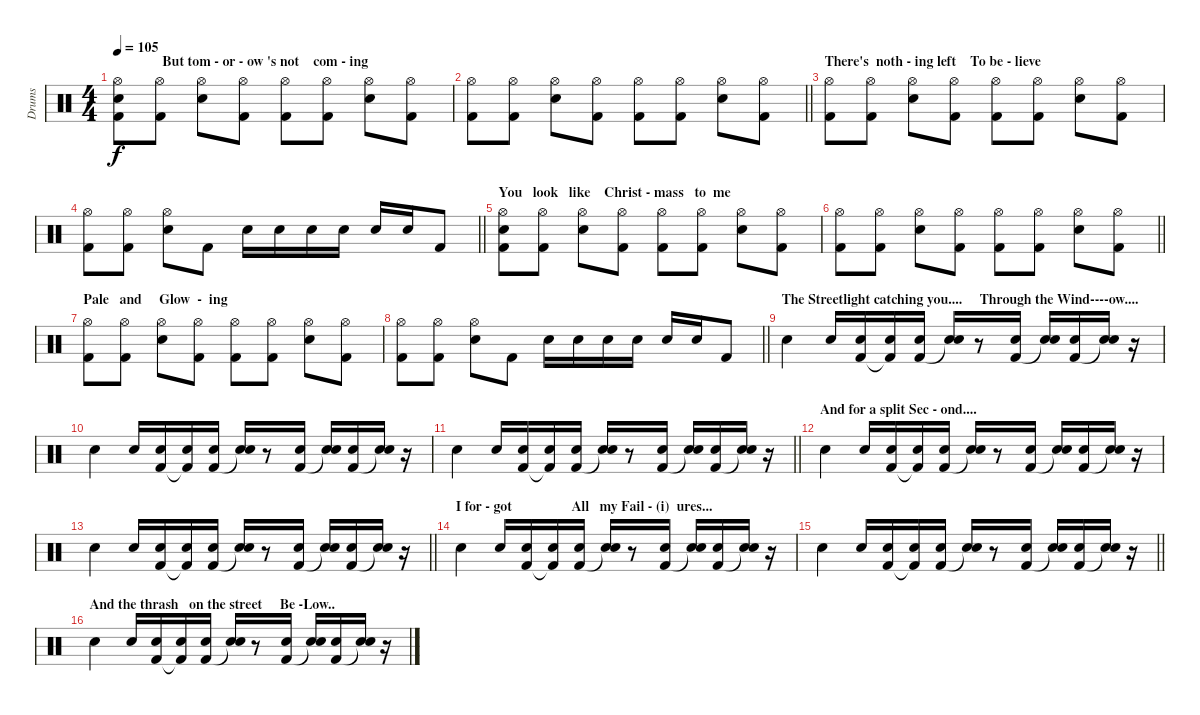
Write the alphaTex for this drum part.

\track ("Drums " "Drums ") {instrument percussion}
\staff {score}
\articulation defaults
\ts (4 4)
\section ("" "              But tom - or - ow 's not    com - ing")
\tempo 105
\clef neutral
\ks c
("Hi-Hat (open)" "Kick (hit) 2" "Snare (hit) 2").8{dy f} ("Hi-Hat (open)" "Kick (hit) 2").8 ("Hi-Hat (open)" "Snare (hit) 2").8 ("Hi-Hat (open)" "Kick (hit) 2").8 ("Hi-Hat (open)" "Kick (hit) 2").8 ("Hi-Hat (open)" "Kick (hit) 2").8 ("Hi-Hat (open)" "Snare (hit) 2").8 ("Hi-Hat (open)" "Kick (hit) 2").8 |
\barLineRight lightlight
("Hi-Hat (open)" "Kick (hit) 2").8 ("Hi-Hat (open)" "Kick (hit) 2").8 ("Hi-Hat (open)" "Snare (hit) 2").8 ("Hi-Hat (open)" "Kick (hit) 2").8 ("Hi-Hat (open)" "Kick (hit) 2").8 ("Hi-Hat (open)" "Kick (hit) 2").8 ("Hi-Hat (open)" "Snare (hit) 2").8 ("Hi-Hat (open)" "Kick (hit) 2").8 |
\section ("" "There's  noth - ing left    To be - lieve")
("Hi-Hat (open)" "Kick (hit) 2").8 ("Hi-Hat (open)" "Kick (hit) 2").8 ("Hi-Hat (open)" "Snare (hit) 2").8 ("Hi-Hat (open)" "Kick (hit) 2").8 ("Hi-Hat (open)" "Kick (hit) 2").8 ("Hi-Hat (open)" "Kick (hit) 2").8 ("Hi-Hat (open)" "Snare (hit) 2").8 ("Hi-Hat (open)" "Kick (hit) 2").8 |
\barLineRight lightlight
("Hi-Hat (open)" "Kick (hit) 2").8 ("Hi-Hat (open)" "Kick (hit) 2").8 ("Hi-Hat (open)" "Snare (hit) 2").8 "Kick (hit) 2".8 "Snare (hit) 2".16 "Snare (hit) 2".16 "Snare (hit) 2".16 "Snare (hit) 2".16 "Snare (hit) 2".16 "Snare (hit) 2".16 "Kick (hit) 2".8 |
\section ("" "You   look   like    Christ - mass   to  me")
("Hi-Hat (open)" "Kick (hit) 2" "Snare (hit) 2").8 ("Hi-Hat (open)" "Kick (hit) 2").8 ("Hi-Hat (open)" "Snare (hit) 2").8 ("Hi-Hat (open)" "Kick (hit) 2").8 ("Hi-Hat (open)" "Kick (hit) 2").8 ("Hi-Hat (open)" "Kick (hit) 2").8 ("Hi-Hat (open)" "Snare (hit) 2").8 ("Hi-Hat (open)" "Kick (hit) 2").8 |
\barLineRight lightlight
("Hi-Hat (open)" "Kick (hit) 2").8 ("Hi-Hat (open)" "Kick (hit) 2").8 ("Hi-Hat (open)" "Snare (hit) 2").8 ("Hi-Hat (open)" "Kick (hit) 2").8 ("Hi-Hat (open)" "Kick (hit) 2").8 ("Hi-Hat (open)" "Kick (hit) 2").8 ("Hi-Hat (open)" "Snare (hit) 2").8 ("Hi-Hat (open)" "Kick (hit) 2").8 |
\section ("" "Pale   and     Glow  -  ing")
("Hi-Hat (open)" "Kick (hit) 2").8 ("Hi-Hat (open)" "Kick (hit) 2").8 ("Hi-Hat (open)" "Snare (hit) 2").8 ("Hi-Hat (open)" "Kick (hit) 2").8 ("Hi-Hat (open)" "Kick (hit) 2").8 ("Hi-Hat (open)" "Kick (hit) 2").8 ("Hi-Hat (open)" "Snare (hit) 2").8 ("Hi-Hat (open)" "Kick (hit) 2").8 |
\barLineRight lightlight
("Hi-Hat (open)" "Kick (hit) 2").8 ("Hi-Hat (open)" "Kick (hit) 2").8 ("Hi-Hat (open)" "Snare (hit) 2").8 "Kick (hit) 2".8 "Snare (hit) 2".16 "Snare (hit) 2".16 "Snare (hit) 2".16 "Snare (hit) 2".16 "Snare (hit) 2".16 "Snare (hit) 2".16 "Kick (hit) 2".8 |
\section ("" "The Streetlight catching you....     Through the Wind----ow....")
"Snare (hit) 2".4 "Snare (hit) 2".16 ("Kick (hit) 2" "Snare (hit) 2").16 ("Kick (hit) 2"{t} "Snare (hit) 2").16 ("Kick (hit) 2" "Snare (hit) 2").16 ("Snare (hit)"{t} "Snare (hit) 2").16 r.8 ("Kick (hit) 2" "Snare (hit) 2").16 ("Snare (hit)"{t} "Snare (hit) 2").16 ("Kick (hit) 2" "Snare (hit) 2").16 ("Snare (hit)"{t} "Snare (hit) 2").16 r.16 |
"Snare (hit) 2".4 "Snare (hit) 2".16 ("Kick (hit) 2" "Snare (hit) 2").16 ("Kick (hit) 2"{t} "Snare (hit) 2").16 ("Kick (hit) 2" "Snare (hit) 2").16 ("Snare (hit)"{t} "Snare (hit) 2").16 r.8 ("Kick (hit) 2" "Snare (hit) 2").16 ("Snare (hit)"{t} "Snare (hit) 2").16 ("Kick (hit) 2" "Snare (hit) 2").16 ("Snare (hit)"{t} "Snare (hit) 2").16 r.16 |
\barLineRight lightlight "Snare (hit) 2".4 "Snare (hit) 2".16
("Kick (hit) 2" "Snare (hit) 2").16 ("Kick (hit) 2"{t} "Snare (hit) 2").16 ("Kick (hit) 2" "Snare (hit) 2").16 ("Snare (hit)"{t} "Snare (hit) 2").16 r.8 ("Kick (hit) 2" "Snare (hit) 2").16 ("Snare (hit)"{t} "Snare (hit) 2").16 ("Kick (hit) 2" "Snare (hit) 2").16 ("Snare (hit)"{t} "Snare (hit) 2").16 r.16 |
\section ("" "And for a split Sec - ond....")
"Snare (hit) 2".4 "Snare (hit) 2".16 ("Kick (hit) 2" "Snare (hit) 2").16 ("Kick (hit) 2"{t} "Snare (hit) 2").16 ("Kick (hit) 2" "Snare (hit) 2").16 ("Snare (hit)"{t} "Snare (hit) 2").16 r.8 ("Kick (hit) 2" "Snare (hit) 2").16 ("Snare (hit)"{t} "Snare (hit) 2").16 ("Kick (hit) 2" "Snare (hit) 2").16 ("Snare (hit)"{t} "Snare (hit) 2").16 r.16 |
\barLineRight lightlight "Snare (hit) 2".4 "Snare (hit) 2".16
("Kick (hit) 2" "Snare (hit) 2").16 ("Kick (hit) 2"{t} "Snare (hit) 2").16 ("Kick (hit) 2" "Snare (hit) 2").16 ("Snare (hit)"{t} "Snare (hit) 2").16 r.8 ("Kick (hit) 2" "Snare (hit) 2").16 ("Snare (hit)"{t} "Snare (hit) 2").16 ("Kick (hit) 2" "Snare (hit) 2").16 ("Snare (hit)"{t} "Snare (hit) 2").16 r.16 |
\section ("" "I for - got                 All   my Fail - (i)  ures...")
"Snare (hit) 2".4 "Snare (hit) 2".16 ("Kick (hit) 2" "Snare (hit) 2").16 ("Kick (hit) 2"{t} "Snare (hit) 2").16 ("Kick (hit) 2" "Snare (hit) 2").16 ("Snare (hit)"{t} "Snare (hit) 2").16 r.8 ("Kick (hit) 2" "Snare (hit) 2").16 ("Snare (hit)"{t} "Snare (hit) 2").16 ("Kick (hit) 2" "Snare (hit) 2").16 ("Snare (hit)"{t} "Snare (hit) 2").16 r.16 |
\barLineRight lightlight "Snare (hit) 2".4 "Snare (hit) 2".16
("Kick (hit) 2" "Snare (hit) 2").16 ("Kick (hit) 2"{t} "Snare (hit) 2").16 ("Kick (hit) 2" "Snare (hit) 2").16 ("Snare (hit)"{t} "Snare (hit) 2").16 r.8 ("Kick (hit) 2" "Snare (hit) 2").16 ("Snare (hit)"{t} "Snare (hit) 2").16 ("Kick (hit) 2" "Snare (hit) 2").16 ("Snare (hit)"{t} "Snare (hit) 2").16 r.16 |
\section ("" "And the thrash   on the street     Be -Low..")
"Snare (hit) 2".4 "Snare (hit) 2".16 ("Kick (hit) 2" "Snare (hit) 2").16 ("Kick (hit) 2"{t} "Snare (hit) 2").16 ("Kick (hit) 2" "Snare (hit) 2").16 ("Snare (hit)"{t} "Snare (hit) 2").16 r.8 ("Kick (hit) 2" "Snare (hit) 2").16 ("Snare (hit)"{t} "Snare (hit) 2").16 ("Kick (hit) 2" "Snare (hit) 2").16 ("Snare (hit)"{t} "Snare (hit) 2").16 r.16
